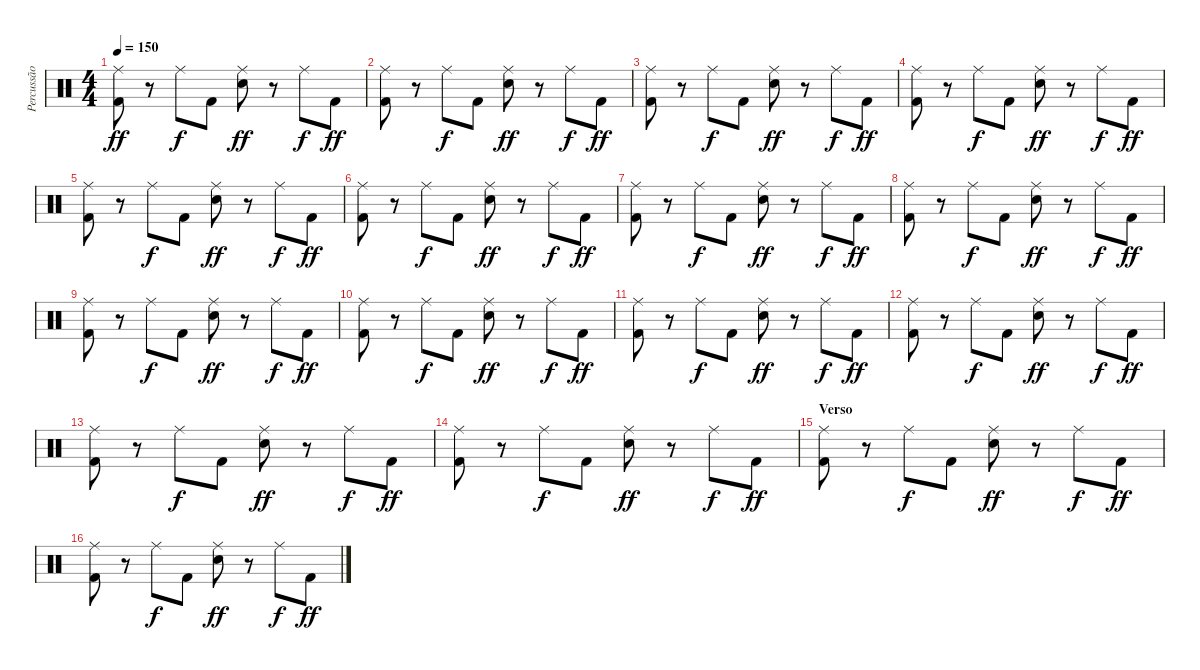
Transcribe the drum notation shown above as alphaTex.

\track ("Percussão" "Percussão") {instrument percussion}
\staff {score}
\articulation defaults
\ts (4 4)
\tempo 150
\clef neutral
\ks c
("Kick (hit) 2" "Ride (middle)").8{dy ff} r.8 "Ride (middle)".8{dy f} "Kick (hit) 2".8 ("Electric Snare (hit)" "Ride (middle)").8{dy ff} r.8 "Ride (middle)".8{dy f} "Kick (hit) 2".8{dy ff} |
("Kick (hit) 2" "Ride (middle)").8 r.8 "Ride (middle)".8{dy f} "Kick (hit) 2".8 ("Electric Snare (hit)" "Ride (middle)").8{dy ff} r.8 "Ride (middle)".8{dy f} "Kick (hit) 2".8{dy ff} |
("Kick (hit) 2" "Ride (middle)").8 r.8 "Ride (middle)".8{dy f} "Kick (hit) 2".8 ("Electric Snare (hit)" "Ride (middle)").8{dy ff} r.8 "Ride (middle)".8{dy f} "Kick (hit) 2".8{dy ff} |
("Kick (hit) 2" "Ride (middle)").8 r.8 "Ride (middle)".8{dy f} "Kick (hit) 2".8 ("Electric Snare (hit)" "Ride (middle)").8{dy ff} r.8 "Ride (middle)".8{dy f} "Kick (hit) 2".8{dy ff} |
("Kick (hit) 2" "Ride (middle)").8 r.8 "Ride (middle)".8{dy f} "Kick (hit) 2".8 ("Electric Snare (hit)" "Ride (middle)").8{dy ff} r.8 "Ride (middle)".8{dy f} "Kick (hit) 2".8{dy ff} |
("Kick (hit) 2" "Ride (middle)").8 r.8 "Ride (middle)".8{dy f} "Kick (hit) 2".8 ("Electric Snare (hit)" "Ride (middle)").8{dy ff} r.8 "Ride (middle)".8{dy f} "Kick (hit) 2".8{dy ff} |
("Kick (hit) 2" "Ride (middle)").8 r.8 "Ride (middle)".8{dy f} "Kick (hit) 2".8 ("Electric Snare (hit)" "Ride (middle)").8{dy ff} r.8 "Ride (middle)".8{dy f} "Kick (hit) 2".8{dy ff} |
("Kick (hit) 2" "Ride (middle)").8 r.8 "Ride (middle)".8{dy f} "Kick (hit) 2".8 ("Electric Snare (hit)" "Ride (middle)").8{dy ff} r.8 "Ride (middle)".8{dy f} "Kick (hit) 2".8{dy ff} |
("Kick (hit) 2" "Ride (middle)").8 r.8 "Ride (middle)".8{dy f} "Kick (hit) 2".8 ("Electric Snare (hit)" "Ride (middle)").8{dy ff} r.8 "Ride (middle)".8{dy f} "Kick (hit) 2".8{dy ff} |
("Kick (hit) 2" "Ride (middle)").8 r.8 "Ride (middle)".8{dy f} "Kick (hit) 2".8 ("Electric Snare (hit)" "Ride (middle)").8{dy ff} r.8 "Ride (middle)".8{dy f} "Kick (hit) 2".8{dy ff} |
("Kick (hit) 2" "Ride (middle)").8 r.8 "Ride (middle)".8{dy f} "Kick (hit) 2".8 ("Electric Snare (hit)" "Ride (middle)").8{dy ff} r.8 "Ride (middle)".8{dy f} "Kick (hit) 2".8{dy ff} |
("Kick (hit) 2" "Ride (middle)").8 r.8 "Ride (middle)".8{dy f} "Kick (hit) 2".8 ("Electric Snare (hit)" "Ride (middle)").8{dy ff} r.8 "Ride (middle)".8{dy f} "Kick (hit) 2".8{dy ff} |
("Kick (hit) 2" "Ride (middle)").8 r.8 "Ride (middle)".8{dy f} "Kick (hit) 2".8 ("Electric Snare (hit)" "Ride (middle)").8{dy ff} r.8 "Ride (middle)".8{dy f} "Kick (hit) 2".8{dy ff} |
("Kick (hit) 2" "Ride (middle)").8 r.8 "Ride (middle)".8{dy f} "Kick (hit) 2".8 ("Electric Snare (hit)" "Ride (middle)").8{dy ff} r.8 "Ride (middle)".8{dy f} "Kick (hit) 2".8{dy ff} |
\section ("" "Verso")
("Kick (hit) 2" "Ride (middle)").8 r.8 "Ride (middle)".8{dy f} "Kick (hit) 2".8 ("Electric Snare (hit)" "Ride (middle)").8{dy ff} r.8 "Ride (middle)".8{dy f} "Kick (hit) 2".8{dy ff} |
("Kick (hit) 2" "Ride (middle)").8 r.8 "Ride (middle)".8{dy f} "Kick (hit) 2".8 ("Electric Snare (hit)" "Ride (middle)").8{dy ff} r.8 "Ride (middle)".8{dy f} "Kick (hit) 2".8{dy ff}
